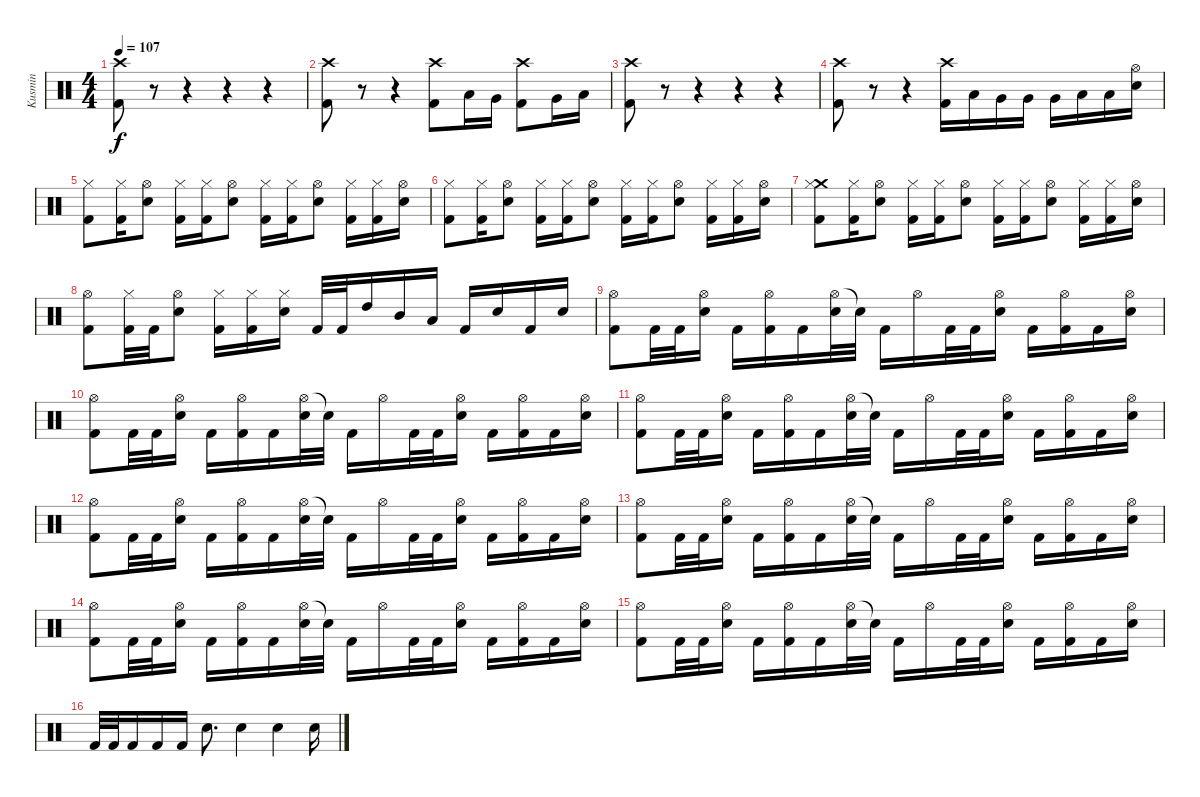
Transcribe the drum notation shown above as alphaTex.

\track ("Kusmin" "Kusmin") {instrument percussion}
\staff {score}
\articulation defaults
\ts (4 4)
\tempo 107
\clef neutral
\ks c
("Crash high (hit)" "Kick (hit) 2").8{dy f} r.8 r.4 r.4 r.4 |
("Crash high (hit)" "Kick (hit) 2").8 r.8 r.4 ("Crash high (hit)" "Kick (hit) 2").8 "Low Tom (hit)".16 "Very Low Tom (hit)".16 ("Crash high (hit)" "Kick (hit) 2").8 "Very Low Tom (hit)".16 "Low Floor Tom (hit)".16 |
("Crash high (hit)" "Kick (hit) 2").8 r.8 r.4 r.4 r.4 |
("Crash high (hit)" "Kick (hit) 2").8 r.8 r.4 ("Crash high (hit)" "Kick (hit) 2").16 "Low Tom (hit)".16 "Very Low Tom (hit)".16 "Very Low Tom (hit)".16 "Very Low Tom (hit)".16 "Low Floor Tom (hit)".16 "Low Floor Tom (hit)".16 ("Hi-Hat (open)" "Snare (hit) 2").16 |
("Hi-Hat (closed)" "Kick (hit) 2").8 ("Hi-Hat (closed)" "Kick (hit) 2").16 ("Hi-Hat (open)" "Snare (hit) 2").8 ("Hi-Hat (closed)" "Kick (hit) 2").16 ("Hi-Hat (closed)" "Kick (hit) 2").16 ("Hi-Hat (open)" "Snare (hit) 2").8 ("Hi-Hat (closed)" "Kick (hit) 2").16 ("Hi-Hat (closed)" "Kick (hit) 2").16 ("Hi-Hat (open)" "Snare (hit) 2").8 ("Hi-Hat (closed)" "Kick (hit) 2").16 ("Hi-Hat (closed)" "Kick (hit) 2").16 ("Hi-Hat (open)" "Snare (hit) 2").16 |
("Hi-Hat (closed)" "Kick (hit) 2").8 ("Hi-Hat (closed)" "Kick (hit) 2").16 ("Hi-Hat (open)" "Snare (hit) 2").8 ("Hi-Hat (closed)" "Kick (hit) 2").16 ("Hi-Hat (closed)" "Kick (hit) 2").16 ("Hi-Hat (open)" "Snare (hit) 2").8 ("Hi-Hat (closed)" "Kick (hit) 2").16 ("Hi-Hat (closed)" "Kick (hit) 2").16 ("Hi-Hat (open)" "Snare (hit) 2").8 ("Hi-Hat (closed)" "Kick (hit) 2").16 ("Hi-Hat (closed)" "Kick (hit) 2").16 ("Hi-Hat (open)" "Snare (hit) 2").16 |
("Crash medium (hit)" "Hi-Hat (closed)" "Kick (hit) 2").8 ("Hi-Hat (closed)" "Kick (hit) 2").16 ("Hi-Hat (open)" "Snare (hit) 2").8 ("Hi-Hat (closed)" "Kick (hit) 2").16 ("Hi-Hat (closed)" "Kick (hit) 2").16 ("Hi-Hat (open)" "Snare (hit) 2").8 ("Hi-Hat (closed)" "Kick (hit) 2").16 ("Hi-Hat (closed)" "Kick (hit) 2").16 ("Hi-Hat (open)" "Snare (hit) 2").8 ("Hi-Hat (closed)" "Kick (hit) 2").16 ("Hi-Hat (closed)" "Kick (hit) 2").16 ("Hi-Hat (open)" "Snare (hit) 2").16 |
("Hi-Hat (open)" "Kick (hit) 2").8 ("Hi-Hat (closed)" "Kick (hit) 2").32 "Kick (hit) 2".32 ("Hi-Hat (open)" "Snare (hit) 2").8 ("Hi-Hat (closed)" "Kick (hit) 2").16 ("Hi-Hat (closed)" "Kick (hit) 2").16 ("Hi-Hat (closed)" "Snare (hit) 2").16 "Kick (hit) 2".32 "Kick (hit) 2".32 "High Tom (hit)".16 "Mid Tom (hit)".16 "Low Tom (hit)".16 "Kick (hit) 2".16 "Snare (hit) 2".16 "Kick (hit) 2".16 "Snare (hit) 2".16 |
("Hi-Hat (open)" "Kick (hit) 2").8 "Kick (hit) 2".32 "Kick (hit) 2".32 ("Hi-Hat (open)" "Snare (hit) 2").16 "Kick (hit) 2".16 ("Hi-Hat (open)" "Kick (hit) 2").16 "Kick (hit) 2".16 ("Hi-Hat (open)" "Snare (hit) 2").32 "Snare (hit)"{t}.32 "Kick (hit) 2".16 "Hi-Hat (open)".16 "Kick (hit) 2".32 "Kick (hit) 2".32 ("Hi-Hat (open)" "Snare (hit) 2").16 "Kick (hit) 2".16 ("Hi-Hat (open)" "Kick (hit) 2").16 "Kick (hit) 2".16 ("Hi-Hat (open)" "Snare (hit) 2").16 |
("Hi-Hat (open)" "Kick (hit) 2").8 "Kick (hit) 2".32 "Kick (hit) 2".32 ("Hi-Hat (open)" "Snare (hit) 2").16 "Kick (hit) 2".16 ("Hi-Hat (open)" "Kick (hit) 2").16 "Kick (hit) 2".16 ("Hi-Hat (open)" "Snare (hit) 2").32 "Snare (hit)"{t}.32 "Kick (hit) 2".16 "Hi-Hat (open)".16 "Kick (hit) 2".32 "Kick (hit) 2".32 ("Hi-Hat (open)" "Snare (hit) 2").16 "Kick (hit) 2".16 ("Hi-Hat (open)" "Kick (hit) 2").16 "Kick (hit) 2".16 ("Hi-Hat (open)" "Snare (hit) 2").16 |
("Hi-Hat (open)" "Kick (hit) 2").8 "Kick (hit) 2".32 "Kick (hit) 2".32 ("Hi-Hat (open)" "Snare (hit) 2").16 "Kick (hit) 2".16 ("Hi-Hat (open)" "Kick (hit) 2").16 "Kick (hit) 2".16 ("Hi-Hat (open)" "Snare (hit) 2").32 "Snare (hit)"{t}.32 "Kick (hit) 2".16 "Hi-Hat (open)".16 "Kick (hit) 2".32 "Kick (hit) 2".32 ("Hi-Hat (open)" "Snare (hit) 2").16 "Kick (hit) 2".16 ("Hi-Hat (open)" "Kick (hit) 2").16 "Kick (hit) 2".16 ("Hi-Hat (open)" "Snare (hit) 2").16 |
("Hi-Hat (open)" "Kick (hit) 2").8 "Kick (hit) 2".32 "Kick (hit) 2".32 ("Hi-Hat (open)" "Snare (hit) 2").16 "Kick (hit) 2".16 ("Hi-Hat (open)" "Kick (hit) 2").16 "Kick (hit) 2".16 ("Hi-Hat (open)" "Snare (hit) 2").32 "Snare (hit)"{t}.32 "Kick (hit) 2".16 "Hi-Hat (open)".16 "Kick (hit) 2".32 "Kick (hit) 2".32 ("Hi-Hat (open)" "Snare (hit) 2").16 "Kick (hit) 2".16 ("Hi-Hat (open)" "Kick (hit) 2").16 "Kick (hit) 2".16 ("Hi-Hat (open)" "Snare (hit) 2").16 |
("Hi-Hat (open)" "Kick (hit) 2").8 "Kick (hit) 2".32 "Kick (hit) 2".32 ("Hi-Hat (open)" "Snare (hit) 2").16 "Kick (hit) 2".16 ("Hi-Hat (open)" "Kick (hit) 2").16 "Kick (hit) 2".16 ("Hi-Hat (open)" "Snare (hit) 2").32 "Snare (hit)"{t}.32 "Kick (hit) 2".16 "Hi-Hat (open)".16 "Kick (hit) 2".32 "Kick (hit) 2".32 ("Hi-Hat (open)" "Snare (hit) 2").16 "Kick (hit) 2".16 ("Hi-Hat (open)" "Kick (hit) 2").16 "Kick (hit) 2".16 ("Hi-Hat (open)" "Snare (hit) 2").16 |
("Hi-Hat (open)" "Kick (hit) 2").8 "Kick (hit) 2".32 "Kick (hit) 2".32 ("Hi-Hat (open)" "Snare (hit) 2").16 "Kick (hit) 2".16 ("Hi-Hat (open)" "Kick (hit) 2").16 "Kick (hit) 2".16 ("Hi-Hat (open)" "Snare (hit) 2").32 "Snare (hit)"{t}.32 "Kick (hit) 2".16 "Hi-Hat (open)".16 "Kick (hit) 2".32 "Kick (hit) 2".32 ("Hi-Hat (open)" "Snare (hit) 2").16 "Kick (hit) 2".16 ("Hi-Hat (open)" "Kick (hit) 2").16 "Kick (hit) 2".16 ("Hi-Hat (open)" "Snare (hit) 2").16 |
("Hi-Hat (open)" "Kick (hit) 2").8 "Kick (hit) 2".32 "Kick (hit) 2".32 ("Hi-Hat (open)" "Snare (hit) 2").16 "Kick (hit) 2".16 ("Hi-Hat (open)" "Kick (hit) 2").16 "Kick (hit) 2".16 ("Hi-Hat (open)" "Snare (hit) 2").32 "Snare (hit)"{t}.32 "Kick (hit) 2".16 "Hi-Hat (open)".16 "Kick (hit) 2".32 "Kick (hit) 2".32 ("Hi-Hat (open)" "Snare (hit) 2").16 "Kick (hit) 2".16 ("Hi-Hat (open)" "Kick (hit) 2").16 "Kick (hit) 2".16 ("Hi-Hat (open)" "Snare (hit) 2").16 |
"Kick (hit) 2".32 "Kick (hit) 2".32 "Kick (hit) 2".16 "Kick (hit) 2".16 "Kick (hit) 2".16 "Snare (hit) 2".8{d} "Snare (hit) 2".4 "Snare (hit) 2".4 "Snare (hit) 2".16
